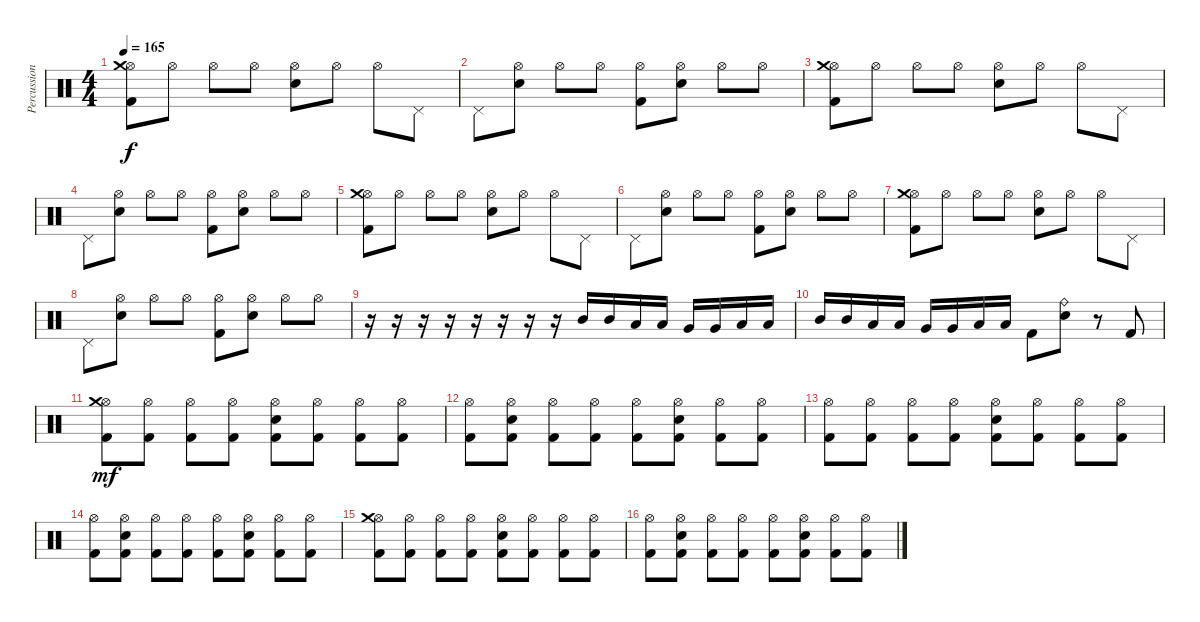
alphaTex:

\track ("Percussion" "Percussion") {instrument percussion}
\staff {score}
\articulation defaults
\ts (4 4)
\tempo 165
\clef neutral
\ks c
("Hi-Hat (open)" "Crash medium (hit)" "Kick (hit) 2").8{dy f} "Hi-Hat (open)".8 "Hi-Hat (open)".8 "Hi-Hat (open)".8 ("Hi-Hat (open)" "Electric Snare (hit)").8 "Hi-Hat (open)".8 "Hi-Hat (open)".8 "Pedal Hi-Hat (hit)".8 |
"Pedal Hi-Hat (hit)".8 ("Hi-Hat (open)" "Electric Snare (hit)").8 "Hi-Hat (open)".8 "Hi-Hat (open)".8 ("Hi-Hat (open)" "Kick (hit) 2").8 ("Hi-Hat (open)" "Electric Snare (hit)").8 "Hi-Hat (open)".8 "Hi-Hat (open)".8 |
("Hi-Hat (open)" "Crash medium (hit)" "Kick (hit) 2").8 "Hi-Hat (open)".8 "Hi-Hat (open)".8 "Hi-Hat (open)".8 ("Hi-Hat (open)" "Electric Snare (hit)").8 "Hi-Hat (open)".8 "Hi-Hat (open)".8 "Pedal Hi-Hat (hit)".8 |
"Pedal Hi-Hat (hit)".8 ("Hi-Hat (open)" "Electric Snare (hit)").8 "Hi-Hat (open)".8 "Hi-Hat (open)".8 ("Hi-Hat (open)" "Kick (hit) 2").8 ("Hi-Hat (open)" "Electric Snare (hit)").8 "Hi-Hat (open)".8 "Hi-Hat (open)".8 |
("Hi-Hat (open)" "Crash medium (hit)" "Kick (hit) 2").8 "Hi-Hat (open)".8 "Hi-Hat (open)".8 "Hi-Hat (open)".8 ("Hi-Hat (open)" "Electric Snare (hit)").8 "Hi-Hat (open)".8 "Hi-Hat (open)".8 "Pedal Hi-Hat (hit)".8 |
"Pedal Hi-Hat (hit)".8 ("Hi-Hat (open)" "Electric Snare (hit)").8 "Hi-Hat (open)".8 "Hi-Hat (open)".8 ("Hi-Hat (open)" "Kick (hit) 2").8 ("Hi-Hat (open)" "Electric Snare (hit)").8 "Hi-Hat (open)".8 "Hi-Hat (open)".8 |
("Hi-Hat (open)" "Crash medium (hit)" "Kick (hit) 2").8 "Hi-Hat (open)".8 "Hi-Hat (open)".8 "Hi-Hat (open)".8 ("Hi-Hat (open)" "Electric Snare (hit)").8 "Hi-Hat (open)".8 "Hi-Hat (open)".8 "Pedal Hi-Hat (hit)".8 |
"Pedal Hi-Hat (hit)".8 ("Hi-Hat (open)" "Electric Snare (hit)").8 "Hi-Hat (open)".8 "Hi-Hat (open)".8 ("Hi-Hat (open)" "Kick (hit) 2").8 ("Hi-Hat (open)" "Electric Snare (hit)").8 "Hi-Hat (open)".8 "Hi-Hat (open)".8 |
r.16 r.16 r.16 r.16 r.16 r.16 r.16 r.16 "Mid Tom (hit)".16 "Mid Tom (hit)".16 "Low Tom (hit)".16 "Low Tom (hit)".16 "Very Low Tom (hit)".16 "Very Low Tom (hit)".16 "Low Floor Tom (hit)".16 "Low Floor Tom (hit)".16 |
"Mid Tom (hit)".16 "Mid Tom (hit)".16 "Low Tom (hit)".16 "Low Tom (hit)".16 "Very Low Tom (hit)".16 "Very Low Tom (hit)".16 "Low Floor Tom (hit)".16 "Low Floor Tom (hit)".16 "Kick (hit) 2".8 ("Ride (bell)" "Electric Snare (hit)").8 r.8 "Kick (hit) 2".8 |
("Hi-Hat (open)" "Crash medium (hit)" "Kick (hit) 2").8{dy mf} ("Hi-Hat (open)" "Kick (hit) 2").8 ("Hi-Hat (open)" "Kick (hit) 2").8 ("Hi-Hat (open)" "Kick (hit) 2").8 ("Hi-Hat (open)" "Electric Snare (hit)" "Kick (hit) 2").8 ("Hi-Hat (open)" "Kick (hit) 2").8 ("Hi-Hat (open)" "Kick (hit) 2").8 ("Hi-Hat (open)" "Kick (hit) 2").8 |
("Hi-Hat (open)" "Kick (hit) 2").8 ("Hi-Hat (open)" "Electric Snare (hit)" "Kick (hit) 2").8 ("Hi-Hat (open)" "Kick (hit) 2").8 ("Hi-Hat (open)" "Kick (hit) 2").8 ("Hi-Hat (open)" "Kick (hit) 2").8 ("Hi-Hat (open)" "Electric Snare (hit)" "Kick (hit) 2").8 ("Hi-Hat (open)" "Kick (hit) 2").8 ("Hi-Hat (open)" "Kick (hit) 2").8 |
("Hi-Hat (open)" "Kick (hit) 2").8 ("Hi-Hat (open)" "Kick (hit) 2").8 ("Hi-Hat (open)" "Kick (hit) 2").8 ("Hi-Hat (open)" "Kick (hit) 2").8 ("Hi-Hat (open)" "Electric Snare (hit)" "Kick (hit) 2").8 ("Hi-Hat (open)" "Kick (hit) 2").8 ("Hi-Hat (open)" "Kick (hit) 2").8 ("Hi-Hat (open)" "Kick (hit) 2").8 |
("Hi-Hat (open)" "Kick (hit) 2").8 ("Hi-Hat (open)" "Electric Snare (hit)" "Kick (hit) 2").8 ("Hi-Hat (open)" "Kick (hit) 2").8 ("Hi-Hat (open)" "Kick (hit) 2").8 ("Hi-Hat (open)" "Kick (hit) 2").8 ("Hi-Hat (open)" "Electric Snare (hit)" "Kick (hit) 2").8 ("Hi-Hat (open)" "Kick (hit) 2").8 ("Hi-Hat (open)" "Kick (hit) 2").8 |
("Hi-Hat (open)" "Crash medium (hit)" "Kick (hit) 2").8 ("Hi-Hat (open)" "Kick (hit) 2").8 ("Hi-Hat (open)" "Kick (hit) 2").8 ("Hi-Hat (open)" "Kick (hit) 2").8 ("Hi-Hat (open)" "Electric Snare (hit)" "Kick (hit) 2").8 ("Hi-Hat (open)" "Kick (hit) 2").8 ("Hi-Hat (open)" "Kick (hit) 2").8 ("Hi-Hat (open)" "Kick (hit) 2").8 |
("Hi-Hat (open)" "Kick (hit) 2").8 ("Hi-Hat (open)" "Electric Snare (hit)" "Kick (hit) 2").8 ("Hi-Hat (open)" "Kick (hit) 2").8 ("Hi-Hat (open)" "Kick (hit) 2").8 ("Hi-Hat (open)" "Kick (hit) 2").8 ("Hi-Hat (open)" "Electric Snare (hit)" "Kick (hit) 2").8 ("Hi-Hat (open)" "Kick (hit) 2").8 ("Hi-Hat (open)" "Kick (hit) 2").8
